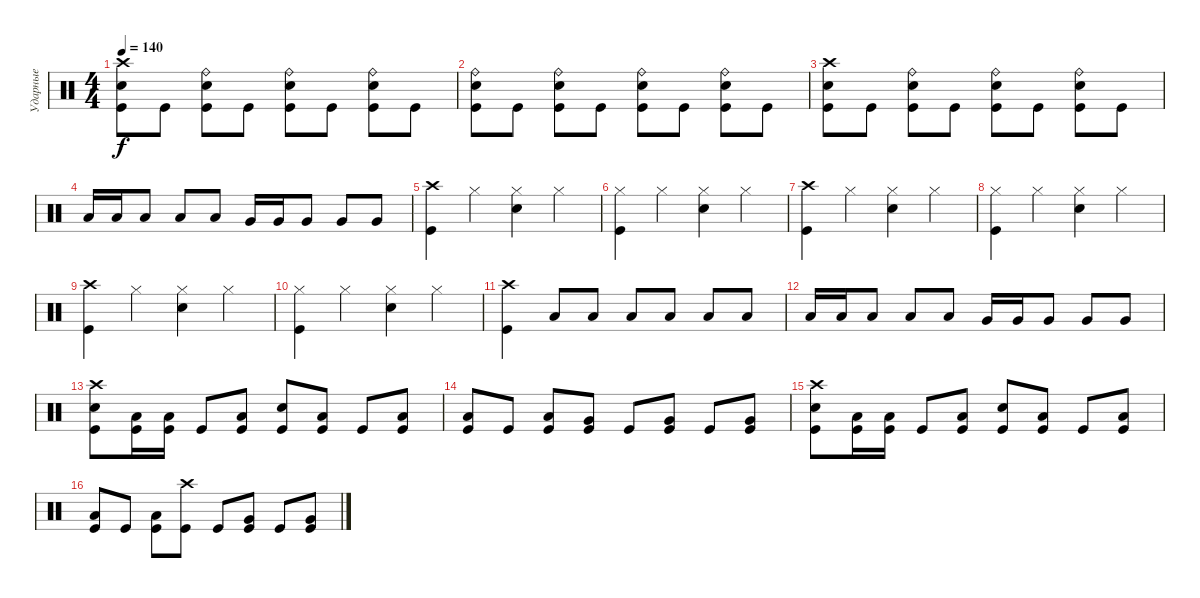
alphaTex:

\track ("Ударные" "Ударные") {instrument percussion}
\staff {score}
\articulation defaults
\ts (4 4)
\tempo 140
\clef neutral
\ks c
("Crash high (hit)" "Electric Snare (hit)" "Kick (hit)").8{dy f} "Kick (hit)".8 ("Ride (bell)" "Electric Snare (hit)" "Kick (hit)").8 "Kick (hit)".8 ("Ride (bell)" "Electric Snare (hit)" "Kick (hit)").8 "Kick (hit)".8 ("Ride (bell)" "Electric Snare (hit)" "Kick (hit)").8 "Kick (hit)".8 |
("Ride (bell)" "Electric Snare (hit)" "Kick (hit)").8 "Kick (hit)".8 ("Ride (bell)" "Electric Snare (hit)" "Kick (hit)").8 "Kick (hit)".8 ("Ride (bell)" "Electric Snare (hit)" "Kick (hit)").8 "Kick (hit)".8 ("Ride (bell)" "Electric Snare (hit)" "Kick (hit)").8 "Kick (hit)".8 |
("Crash high (hit)" "Electric Snare (hit)" "Kick (hit)").8 "Kick (hit)".8 ("Ride (bell)" "Electric Snare (hit)" "Kick (hit)").8 "Kick (hit)".8 ("Ride (bell)" "Electric Snare (hit)" "Kick (hit)").8 "Kick (hit)".8 ("Ride (bell)" "Electric Snare (hit)" "Kick (hit)").8 "Kick (hit)".8 |
"Low Tom (hit)".16 "Low Tom (hit)".16 "Low Tom (hit)".8 "Low Tom (hit)".8 "Low Tom (hit)".8 "Very Low Tom (hit)".16 "Very Low Tom (hit)".16 "Very Low Tom (hit)".8 "Very Low Tom (hit)".8 "Very Low Tom (hit)".8 |
("Crash high (hit)" "Kick (hit)").4 "Hi-Hat (closed)".4 ("Hi-Hat (closed)" "Electric Snare (hit)").4 "Hi-Hat (closed)".4 |
("Hi-Hat (closed)" "Kick (hit)").4 "Hi-Hat (closed)".4 ("Hi-Hat (closed)" "Electric Snare (hit)").4 "Hi-Hat (closed)".4 |
("Crash high (hit)" "Kick (hit)").4 "Hi-Hat (closed)".4 ("Hi-Hat (closed)" "Electric Snare (hit)").4 "Hi-Hat (closed)".4 |
("Hi-Hat (closed)" "Kick (hit)").4 "Hi-Hat (closed)".4 ("Hi-Hat (closed)" "Electric Snare (hit)").4 "Hi-Hat (closed)".4 |
("Crash high (hit)" "Kick (hit)").4 "Hi-Hat (closed)".4 ("Hi-Hat (closed)" "Electric Snare (hit)").4 "Hi-Hat (closed)".4 |
("Hi-Hat (closed)" "Kick (hit)").4 "Hi-Hat (closed)".4 ("Hi-Hat (closed)" "Electric Snare (hit)").4 "Hi-Hat (closed)".4 |
("Crash high (hit)" "Kick (hit)").4 "Low Tom (hit)".8 "Low Tom (hit)".8 "Low Tom (hit)".8 "Low Tom (hit)".8 "Low Tom (hit)".8 "Low Tom (hit)".8 |
"Low Tom (hit)".16 "Low Tom (hit)".16 "Low Tom (hit)".8 "Low Tom (hit)".8 "Low Tom (hit)".8 "Very Low Tom (hit)".16 "Very Low Tom (hit)".16 "Very Low Tom (hit)".8 "Very Low Tom (hit)".8 "Very Low Tom (hit)".8 |
("Crash high (hit)" "Electric Snare (hit)" "Kick (hit)").8 ("Low Tom (hit)" "Kick (hit)").16 ("Low Tom (hit)" "Kick (hit)").16 "Kick (hit)".8 ("Low Tom (hit)" "Kick (hit)").8 ("Electric Snare (hit)" "Kick (hit)").8 ("Low Tom (hit)" "Kick (hit)").8 "Kick (hit)".8 ("Low Tom (hit)" "Kick (hit)").8 |
("Low Tom (hit)" "Kick (hit)").8 "Kick (hit)".8 ("Low Tom (hit)" "Kick (hit)").8 ("Very Low Tom (hit)" "Kick (hit)").8 "Kick (hit)".8 ("Very Low Tom (hit)" "Kick (hit)").8 "Kick (hit)".8 ("Very Low Tom (hit)" "Kick (hit)").8 |
("Crash high (hit)" "Electric Snare (hit)" "Kick (hit)").8 ("Low Tom (hit)" "Kick (hit)").16 ("Low Tom (hit)" "Kick (hit)").16 "Kick (hit)".8 ("Low Tom (hit)" "Kick (hit)").8 ("Electric Snare (hit)" "Kick (hit)").8 ("Low Tom (hit)" "Kick (hit)").8 "Kick (hit)".8 ("Low Tom (hit)" "Kick (hit)").8 |
("Low Tom (hit)" "Kick (hit)").8 "Kick (hit)".8 ("Low Tom (hit)" "Kick (hit)").8 ("Crash high (hit)" "Kick (hit)").8 "Kick (hit)".8 ("Very Low Tom (hit)" "Kick (hit)").8 "Kick (hit)".8 ("Very Low Tom (hit)" "Kick (hit)").8
